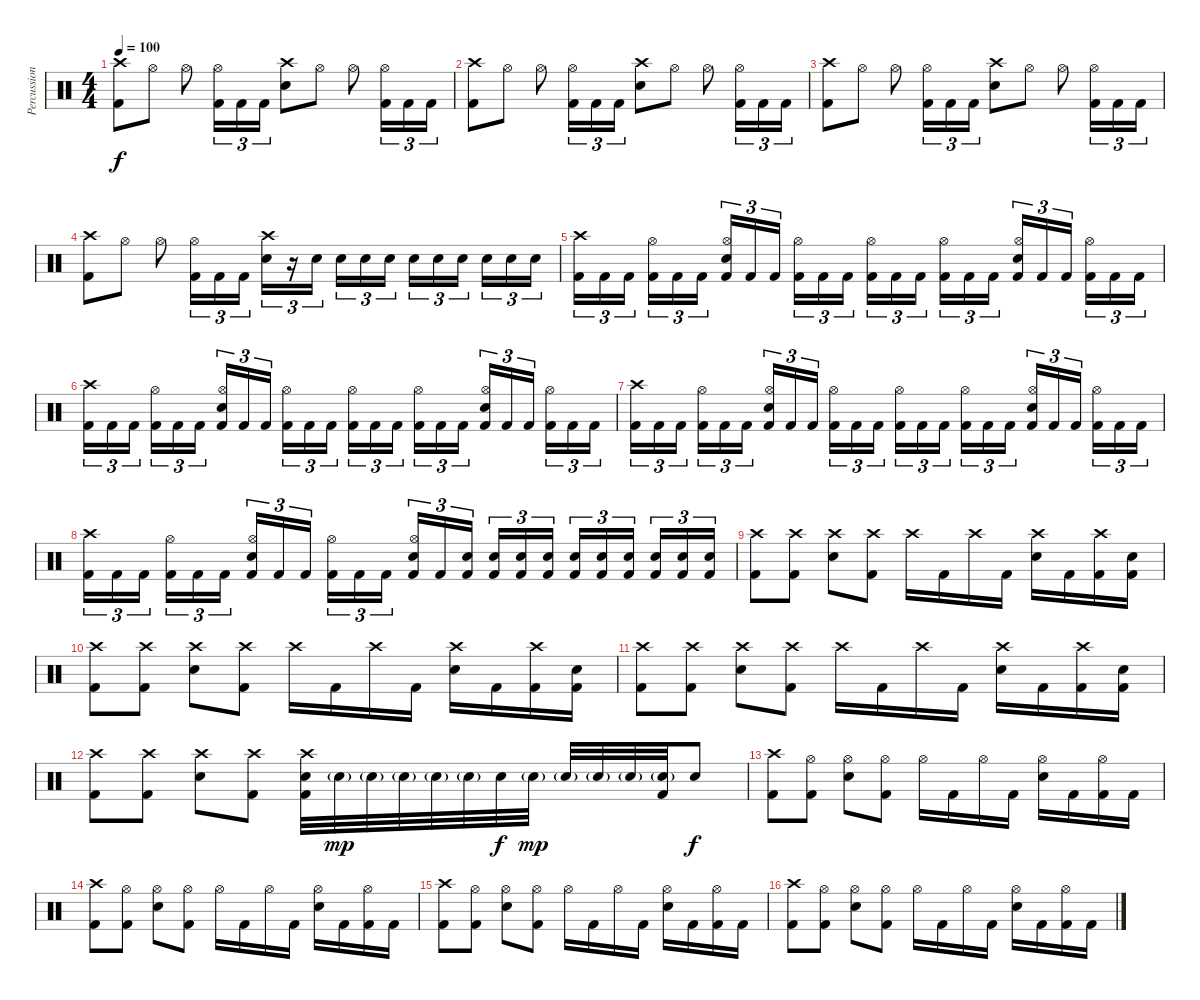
\track ("Percussion" "Percussion") {instrument percussion}
\staff {score}
\articulation defaults
\ts (4 4)
\tempo 100
\clef neutral
\ks c
("Crash high (hit)" "Kick (hit) 2").8{dy f} "Hi-Hat (open)".8 "Hi-Hat (open)".8 ("Hi-Hat (open)" "Kick (hit) 2").16{tu (3 2)} "Kick (hit) 2".16{tu (3 2)} "Kick (hit) 2".16{tu (3 2)} ("Crash high (hit)" "Electric Snare (hit)").8 "Hi-Hat (open)".8 "Hi-Hat (open)".8 ("Hi-Hat (open)" "Kick (hit) 2").16{tu (3 2)} "Kick (hit) 2".16{tu (3 2)} "Kick (hit) 2".16{tu (3 2)} |
("Crash high (hit)" "Kick (hit) 2").8 "Hi-Hat (open)".8 "Hi-Hat (open)".8 ("Hi-Hat (open)" "Kick (hit) 2").16{tu (3 2)} "Kick (hit) 2".16{tu (3 2)} "Kick (hit) 2".16{tu (3 2)} ("Crash high (hit)" "Electric Snare (hit)").8 "Hi-Hat (open)".8 "Hi-Hat (open)".8 ("Hi-Hat (open)" "Kick (hit) 2").16{tu (3 2)} "Kick (hit) 2".16{tu (3 2)} "Kick (hit) 2".16{tu (3 2)} |
("Crash high (hit)" "Kick (hit) 2").8 "Hi-Hat (open)".8 "Hi-Hat (open)".8 ("Hi-Hat (open)" "Kick (hit) 2").16{tu (3 2)} "Kick (hit) 2".16{tu (3 2)} "Kick (hit) 2".16{tu (3 2)} ("Crash high (hit)" "Electric Snare (hit)").8 "Hi-Hat (open)".8 "Hi-Hat (open)".8 ("Hi-Hat (open)" "Kick (hit) 2").16{tu (3 2)} "Kick (hit) 2".16{tu (3 2)} "Kick (hit) 2".16{tu (3 2)} |
("Crash high (hit)" "Kick (hit) 2").8 "Hi-Hat (open)".8 "Hi-Hat (open)".8 ("Hi-Hat (open)" "Kick (hit) 2").16{tu (3 2)} "Kick (hit) 2".16{tu (3 2)} "Kick (hit) 2".16{tu (3 2)} ("Crash high (hit)" "Electric Snare (hit)").16{tu (3 2)} r.16{tu (3 2)} "Electric Snare (hit)".16{tu (3 2)} "Electric Snare (hit)".16{tu (3 2)} "Electric Snare (hit)".16{tu (3 2)} "Electric Snare (hit)".16{tu (3 2)} "Electric Snare (hit)".16{tu (3 2)} "Electric Snare (hit)".16{tu (3 2)} "Electric Snare (hit)".16{tu (3 2)} "Electric Snare (hit)".16{tu (3 2)} "Electric Snare (hit)".16{tu (3 2)} "Electric Snare (hit)".16{tu (3 2)} |
("Crash high (hit)" "Kick (hit) 2").16{tu (3 2)} "Kick (hit) 2".16{tu (3 2)} "Kick (hit) 2".16{tu (3 2)} ("Hi-Hat (open)" "Kick (hit) 2").16{tu (3 2)} "Kick (hit) 2".16{tu (3 2)} "Kick (hit) 2".16{tu (3 2)} ("Hi-Hat (open)" "Electric Snare (hit)" "Kick (hit) 2").16{tu (3 2)} "Kick (hit) 2".16{tu (3 2)} "Kick (hit) 2".16{tu (3 2)} ("Hi-Hat (open)" "Kick (hit) 2").16{tu (3 2)} "Kick (hit) 2".16{tu (3 2)} "Kick (hit) 2".16{tu (3 2)} ("Hi-Hat (open)" "Kick (hit) 2").16{tu (3 2)} "Kick (hit) 2".16{tu (3 2)} "Kick (hit) 2".16{tu (3 2)} ("Hi-Hat (open)" "Kick (hit) 2").16{tu (3 2)} "Kick (hit) 2".16{tu (3 2)} "Kick (hit) 2".16{tu (3 2)} ("Hi-Hat (open)" "Electric Snare (hit)" "Kick (hit) 2").16{tu (3 2)} "Kick (hit) 2".16{tu (3 2)} "Kick (hit) 2".16{tu (3 2)} ("Hi-Hat (open)" "Kick (hit) 2").16{tu (3 2)} "Kick (hit) 2".16{tu (3 2)} "Kick (hit) 2".16{tu (3 2)} |
("Crash high (hit)" "Kick (hit) 2").16{tu (3 2)} "Kick (hit) 2".16{tu (3 2)} "Kick (hit) 2".16{tu (3 2)} ("Hi-Hat (open)" "Kick (hit) 2").16{tu (3 2)} "Kick (hit) 2".16{tu (3 2)} "Kick (hit) 2".16{tu (3 2)} ("Hi-Hat (open)" "Electric Snare (hit)" "Kick (hit) 2").16{tu (3 2)} "Kick (hit) 2".16{tu (3 2)} "Kick (hit) 2".16{tu (3 2)} ("Hi-Hat (open)" "Kick (hit) 2").16{tu (3 2)} "Kick (hit) 2".16{tu (3 2)} "Kick (hit) 2".16{tu (3 2)} ("Hi-Hat (open)" "Kick (hit) 2").16{tu (3 2)} "Kick (hit) 2".16{tu (3 2)} "Kick (hit) 2".16{tu (3 2)} ("Hi-Hat (open)" "Kick (hit) 2").16{tu (3 2)} "Kick (hit) 2".16{tu (3 2)} "Kick (hit) 2".16{tu (3 2)} ("Hi-Hat (open)" "Electric Snare (hit)" "Kick (hit) 2").16{tu (3 2)} "Kick (hit) 2".16{tu (3 2)} "Kick (hit) 2".16{tu (3 2)} ("Hi-Hat (open)" "Kick (hit) 2").16{tu (3 2)} "Kick (hit) 2".16{tu (3 2)} "Kick (hit) 2".16{tu (3 2)} |
("Crash high (hit)" "Kick (hit) 2").16{tu (3 2)} "Kick (hit) 2".16{tu (3 2)} "Kick (hit) 2".16{tu (3 2)} ("Hi-Hat (open)" "Kick (hit) 2").16{tu (3 2)} "Kick (hit) 2".16{tu (3 2)} "Kick (hit) 2".16{tu (3 2)} ("Hi-Hat (open)" "Electric Snare (hit)" "Kick (hit) 2").16{tu (3 2)} "Kick (hit) 2".16{tu (3 2)} "Kick (hit) 2".16{tu (3 2)} ("Hi-Hat (open)" "Kick (hit) 2").16{tu (3 2)} "Kick (hit) 2".16{tu (3 2)} "Kick (hit) 2".16{tu (3 2)} ("Hi-Hat (open)" "Kick (hit) 2").16{tu (3 2)} "Kick (hit) 2".16{tu (3 2)} "Kick (hit) 2".16{tu (3 2)} ("Hi-Hat (open)" "Kick (hit) 2").16{tu (3 2)} "Kick (hit) 2".16{tu (3 2)} "Kick (hit) 2".16{tu (3 2)} ("Hi-Hat (open)" "Electric Snare (hit)" "Kick (hit) 2").16{tu (3 2)} "Kick (hit) 2".16{tu (3 2)} "Kick (hit) 2".16{tu (3 2)} ("Hi-Hat (open)" "Kick (hit) 2").16{tu (3 2)} "Kick (hit) 2".16{tu (3 2)} "Kick (hit) 2".16{tu (3 2)} |
("Crash high (hit)" "Kick (hit) 2").16{tu (3 2)} "Kick (hit) 2".16{tu (3 2)} "Kick (hit) 2".16{tu (3 2)} ("Hi-Hat (open)" "Kick (hit) 2").16{tu (3 2)} "Kick (hit) 2".16{tu (3 2)} "Kick (hit) 2".16{tu (3 2)} ("Hi-Hat (open)" "Electric Snare (hit)" "Kick (hit) 2").16{tu (3 2)} "Kick (hit) 2".16{tu (3 2)} "Kick (hit) 2".16{tu (3 2)} ("Hi-Hat (open)" "Kick (hit) 2").16{tu (3 2)} "Kick (hit) 2".16{tu (3 2)} "Kick (hit) 2".16{tu (3 2)} ("Hi-Hat (open)" "Electric Snare (hit)" "Kick (hit) 2").16{tu (3 2)} "Kick (hit) 2".16{tu (3 2)} ("Electric Snare (hit)" "Kick (hit) 2").16{tu (3 2)} ("Electric Snare (hit)" "Kick (hit) 2").16{tu (3 2)} ("Electric Snare (hit)" "Kick (hit) 2").16{tu (3 2)} ("Electric Snare (hit)" "Kick (hit) 2").16{tu (3 2)} ("Electric Snare (hit)" "Kick (hit) 2").16{tu (3 2)} ("Electric Snare (hit)" "Kick (hit) 2").16{tu (3 2)} ("Electric Snare (hit)" "Kick (hit) 2").16{tu (3 2)} ("Electric Snare (hit)" "Kick (hit) 2").16{tu (3 2)} ("Electric Snare (hit)" "Kick (hit) 2").16{tu (3 2)} ("Electric Snare (hit)" "Kick (hit) 2").16{tu (3 2)} |
("Crash high (hit)" "Kick (hit) 2").8 ("Crash high (hit)" "Kick (hit) 2").8 ("Crash high (hit)" "Electric Snare (hit)").8 ("Crash high (hit)" "Kick (hit) 2").8 "Crash high (hit)".16 "Kick (hit) 2".16 "Crash high (hit)".16 "Kick (hit) 2".16 ("Crash high (hit)" "Electric Snare (hit)").16 "Kick (hit) 2".16 ("Crash high (hit)" "Kick (hit) 2").16 ("Electric Snare (hit)" "Kick (hit) 2").16 |
("Crash high (hit)" "Kick (hit) 2").8 ("Crash high (hit)" "Kick (hit) 2").8 ("Crash high (hit)" "Electric Snare (hit)").8 ("Crash high (hit)" "Kick (hit) 2").8 "Crash high (hit)".16 "Kick (hit) 2".16 "Crash high (hit)".16 "Kick (hit) 2".16 ("Crash high (hit)" "Electric Snare (hit)").16 "Kick (hit) 2".16 ("Crash high (hit)" "Kick (hit) 2").16 ("Electric Snare (hit)" "Kick (hit) 2").16 |
("Crash high (hit)" "Kick (hit) 2").8 ("Crash high (hit)" "Kick (hit) 2").8 ("Crash high (hit)" "Electric Snare (hit)").8 ("Crash high (hit)" "Kick (hit) 2").8 "Crash high (hit)".16 "Kick (hit) 2".16 "Crash high (hit)".16 "Kick (hit) 2".16 ("Crash high (hit)" "Electric Snare (hit)").16 "Kick (hit) 2".16 ("Crash high (hit)" "Kick (hit) 2").16 ("Electric Snare (hit)" "Kick (hit) 2").16 |
("Crash high (hit)" "Kick (hit) 2").8 ("Crash high (hit)" "Kick (hit) 2").8 ("Crash high (hit)" "Electric Snare (hit)").8 ("Crash high (hit)" "Kick (hit) 2").8 ("Crash high (hit)" "Electric Snare (hit)" "Kick (hit) 2").32 "Electric Snare (hit)"{g}.32{dy mp} "Electric Snare (hit)"{g}.32 "Electric Snare (hit)"{g}.32 "Electric Snare (hit)"{g}.32 "Electric Snare (hit)"{g}.32 "Electric Snare (hit)".32{dy f} "Electric Snare (hit)"{g}.32{dy mp} "Electric Snare (hit)"{g}.32 "Electric Snare (hit)"{g}.32 "Electric Snare (hit)"{g}.32 ("Electric Snare (hit)"{g} "Kick (hit) 2").32 "Electric Snare (hit)".8{dy f} |
("Crash high (hit)" "Kick (hit) 2").8 ("Hi-Hat (open)" "Kick (hit) 2").8 ("Hi-Hat (open)" "Electric Snare (hit)").8 ("Hi-Hat (open)" "Kick (hit) 2").8 "Hi-Hat (open)".16 "Kick (hit) 2".16 "Hi-Hat (open)".16 "Kick (hit) 2".16 ("Hi-Hat (open)" "Electric Snare (hit)").16 "Kick (hit) 2".16 ("Hi-Hat (open)" "Kick (hit) 2").16 "Kick (hit) 2".16 |
("Crash high (hit)" "Kick (hit) 2").8 ("Hi-Hat (open)" "Kick (hit) 2").8 ("Hi-Hat (open)" "Electric Snare (hit)").8 ("Hi-Hat (open)" "Kick (hit) 2").8 "Hi-Hat (open)".16 "Kick (hit) 2".16 "Hi-Hat (open)".16 "Kick (hit) 2".16 ("Hi-Hat (open)" "Electric Snare (hit)").16 "Kick (hit) 2".16 ("Hi-Hat (open)" "Kick (hit) 2").16 "Kick (hit) 2".16 |
("Crash high (hit)" "Kick (hit) 2").8 ("Hi-Hat (open)" "Kick (hit) 2").8 ("Hi-Hat (open)" "Electric Snare (hit)").8 ("Hi-Hat (open)" "Kick (hit) 2").8 "Hi-Hat (open)".16 "Kick (hit) 2".16 "Hi-Hat (open)".16 "Kick (hit) 2".16 ("Hi-Hat (open)" "Electric Snare (hit)").16 "Kick (hit) 2".16 ("Hi-Hat (open)" "Kick (hit) 2").16 "Kick (hit) 2".16 |
("Crash high (hit)" "Kick (hit) 2").8 ("Hi-Hat (open)" "Kick (hit) 2").8 ("Hi-Hat (open)" "Electric Snare (hit)").8 ("Hi-Hat (open)" "Kick (hit) 2").8 "Hi-Hat (open)".16 "Kick (hit) 2".16 "Hi-Hat (open)".16 "Kick (hit) 2".16 ("Hi-Hat (open)" "Electric Snare (hit)").16 "Kick (hit) 2".16 ("Hi-Hat (open)" "Kick (hit) 2").16 "Kick (hit) 2".16
